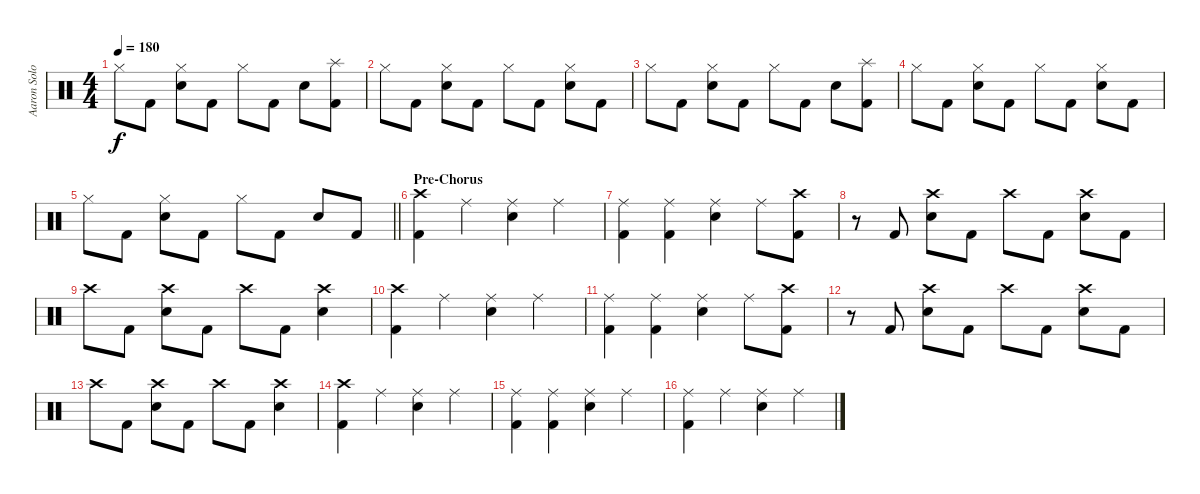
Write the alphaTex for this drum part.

\track ("Aaron Solowoniuk" "Aaron Solo") {instrument percussion}
\staff {score}
\articulation defaults
\ts (4 4)
\tempo 180
\clef neutral
\ks c "Hi-Hat (closed)".8{dy f} "Kick (hit) 2".8
("Hi-Hat (closed)" "Electric Snare (hit)").8 "Kick (hit) 2".8 "Hi-Hat (closed)".8 "Kick (hit) 2".8 "Electric Snare (hit)".8 ("Splash (hit)" "Kick (hit) 2").8 |
"Hi-Hat (closed)".8 "Kick (hit) 2".8 ("Hi-Hat (closed)" "Electric Snare (hit)").8 "Kick (hit) 2".8 "Hi-Hat (closed)".8 "Kick (hit) 2".8 ("Hi-Hat (closed)" "Electric Snare (hit)").8 "Kick (hit) 2".8 |
"Hi-Hat (closed)".8 "Kick (hit) 2".8 ("Hi-Hat (closed)" "Electric Snare (hit)").8 "Kick (hit) 2".8 "Hi-Hat (closed)".8 "Kick (hit) 2".8 "Electric Snare (hit)".8 ("Splash (hit)" "Kick (hit) 2").8 |
"Hi-Hat (closed)".8 "Kick (hit) 2".8 ("Hi-Hat (closed)" "Electric Snare (hit)").8 "Kick (hit) 2".8 "Hi-Hat (closed)".8 "Kick (hit) 2".8 ("Hi-Hat (closed)" "Electric Snare (hit)").8 "Kick (hit) 2".8 |
\barLineRight lightlight "Hi-Hat (closed)".8 "Kick (hit) 2".8
("Hi-Hat (closed)" "Electric Snare (hit)").8 "Kick (hit) 2".8 "Hi-Hat (closed)".8 "Kick (hit) 2".8 "Electric Snare (hit)".8 "Kick (hit) 2".8 |
\section ("" "Pre-Chorus")
("Crash high (hit)" "Kick (hit) 2").4 "Ride (middle)".4 ("Ride (middle)" "Electric Snare (hit)").4 "Ride (middle)".4 |
("Ride (middle)" "Kick (hit) 2").4 ("Ride (middle)" "Kick (hit) 2").4 ("Ride (middle)" "Electric Snare (hit)").4 "Ride (middle)".8 ("Crash high (hit)" "Kick (hit) 2").8 |
r.8 "Kick (hit) 2".8 ("Crash high (hit)" "Electric Snare (hit)").8 "Kick (hit) 2".8 "Crash high (hit)".8 "Kick (hit) 2".8 ("Crash high (hit)" "Electric Snare (hit)").8 "Kick (hit) 2".8 |
"Crash high (hit)".8 "Kick (hit) 2".8 ("Crash high (hit)" "Electric Snare (hit)").8 "Kick (hit) 2".8 "Crash high (hit)".8 "Kick (hit) 2".8 ("Crash high (hit)" "Electric Snare (hit)").4 |
("Crash high (hit)" "Kick (hit) 2").4 "Ride (middle)".4 ("Ride (middle)" "Electric Snare (hit)").4 "Ride (middle)".4 |
("Ride (middle)" "Kick (hit) 2").4 ("Ride (middle)" "Kick (hit) 2").4 ("Ride (middle)" "Electric Snare (hit)").4 "Ride (middle)".8 ("Crash high (hit)" "Kick (hit) 2").8 |
r.8 "Kick (hit) 2".8 ("Crash high (hit)" "Electric Snare (hit)").8 "Kick (hit) 2".8 "Crash high (hit)".8 "Kick (hit) 2".8 ("Crash high (hit)" "Electric Snare (hit)").8 "Kick (hit) 2".8 |
"Crash high (hit)".8 "Kick (hit) 2".8 ("Crash high (hit)" "Electric Snare (hit)").8 "Kick (hit) 2".8 "Crash high (hit)".8 "Kick (hit) 2".8 ("Crash high (hit)" "Electric Snare (hit)").4 |
("Crash high (hit)" "Kick (hit) 2").4 "Ride (middle)".4 ("Ride (middle)" "Electric Snare (hit)").4 "Ride (middle)".4 |
("Ride (middle)" "Kick (hit) 2").4 ("Ride (middle)" "Kick (hit) 2").4 ("Ride (middle)" "Electric Snare (hit)").4 "Ride (middle)".4 |
("Ride (middle)" "Kick (hit) 2").4 "Ride (middle)".4 ("Ride (middle)" "Electric Snare (hit)").4 "Ride (middle)".4
